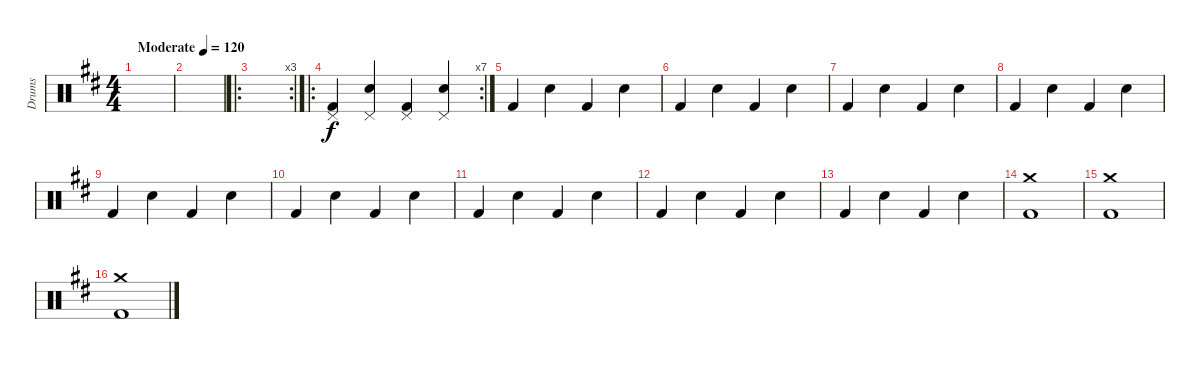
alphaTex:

\track ("Drums" "Drums") {instrument percussion}
\staff {score}
\articulation defaults
\ts (4 4)
\tempo (120 "Moderate")
\clef neutral
\ks d
|
|
\ro
\rc 3
|
\ro
\rc 7
("Kick (hit) 2" "Pedal Hi-Hat (hit)").4 ("Snare (hit) 2" "Pedal Hi-Hat (hit)").4 ("Kick (hit) 2" "Pedal Hi-Hat (hit)").4 ("Snare (hit) 2" "Pedal Hi-Hat (hit)").4 |
"Kick (hit) 2".4 "Snare (hit) 2".4 "Kick (hit) 2".4 "Snare (hit) 2".4 |
"Kick (hit) 2".4 "Snare (hit) 2".4 "Kick (hit) 2".4 "Snare (hit) 2".4 |
"Kick (hit) 2".4 "Snare (hit) 2".4 "Kick (hit) 2".4 "Snare (hit) 2".4 |
"Kick (hit) 2".4 "Snare (hit) 2".4 "Kick (hit) 2".4 "Snare (hit) 2".4 |
"Kick (hit) 2".4 "Snare (hit) 2".4 "Kick (hit) 2".4 "Snare (hit) 2".4 |
"Kick (hit) 2".4 "Snare (hit) 2".4 "Kick (hit) 2".4 "Snare (hit) 2".4 |
"Kick (hit) 2".4 "Snare (hit) 2".4 "Kick (hit) 2".4 "Snare (hit) 2".4 |
"Kick (hit) 2".4 "Snare (hit) 2".4 "Kick (hit) 2".4 "Snare (hit) 2".4 |
"Kick (hit) 2".4 "Snare (hit) 2".4 "Kick (hit) 2".4 "Snare (hit) 2".4 |
("Kick (hit) 2" "Crash medium (hit)").1 |
("Kick (hit) 2" "Crash medium (hit)").1 |
("Kick (hit) 2" "Crash medium (hit)").1
